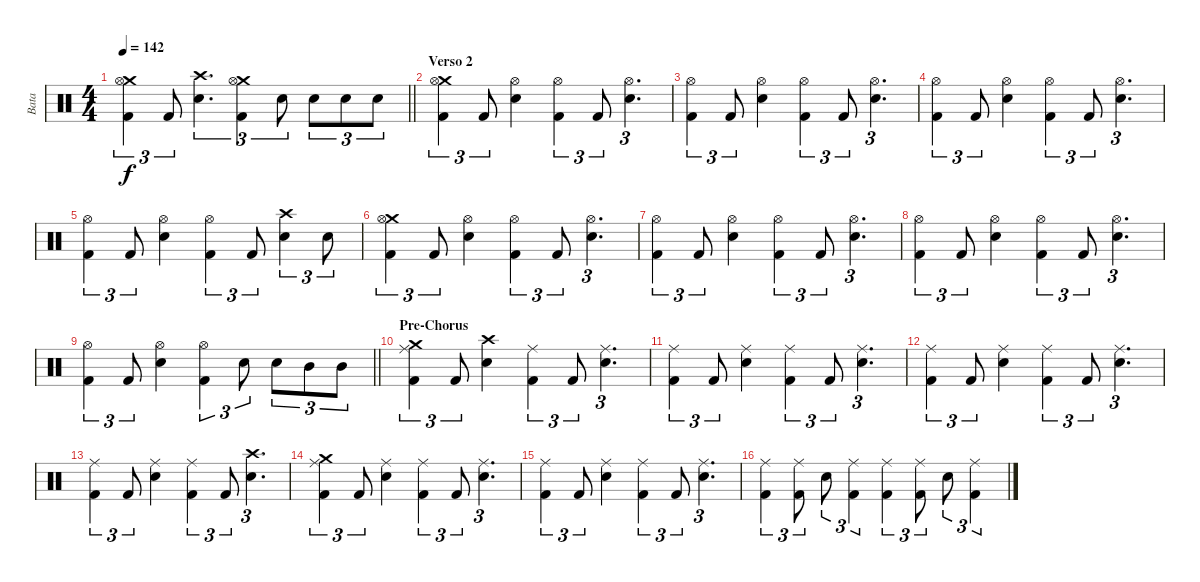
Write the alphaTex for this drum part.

\track ("Bata" "Bata") {instrument percussion}
\staff {score}
\articulation defaults
\ts (4 4)
\tempo 142
\clef neutral
\barLineRight lightlight
\ks c
("Crash medium (hit)" "Hi-Hat (open)" "Kick (hit) 2").4{tu (3 2) dy f} "Kick (hit) 2".8{tu (3 2)} ("Crash high (hit)" "Electric Snare (hit)").4{d tu (3 2)} ("Crash medium (hit)" "Hi-Hat (open)" "Kick (hit) 2").4{tu (3 2)} "Electric Snare (hit)".8{tu (3 2)} "Electric Snare (hit)".8{tu (3 2)} "Electric Snare (hit)".8{tu (3 2)} "Electric Snare (hit)".8{tu (3 2)} |
\section ("" "Verso 2")
("Crash medium (hit)" "Hi-Hat (open)" "Kick (hit) 2").4{tu (3 2)} "Kick (hit) 2".8{tu (3 2)} ("Hi-Hat (open)" "Electric Snare (hit)").4 ("Hi-Hat (open)" "Kick (hit) 2").4{tu (3 2)} "Kick (hit) 2".8{tu (3 2)} ("Hi-Hat (open)" "Electric Snare (hit)").4{d tu (3 2)} |
("Hi-Hat (open)" "Kick (hit) 2").4{tu (3 2)} "Kick (hit) 2".8{tu (3 2)} ("Hi-Hat (open)" "Electric Snare (hit)").4 ("Hi-Hat (open)" "Kick (hit) 2").4{tu (3 2)} "Kick (hit) 2".8{tu (3 2)} ("Hi-Hat (open)" "Electric Snare (hit)").4{d tu (3 2)} |
("Hi-Hat (open)" "Kick (hit) 2").4{tu (3 2)} "Kick (hit) 2".8{tu (3 2)} ("Hi-Hat (open)" "Electric Snare (hit)").4 ("Hi-Hat (open)" "Kick (hit) 2").4{tu (3 2)} "Kick (hit) 2".8{tu (3 2)} ("Hi-Hat (open)" "Electric Snare (hit)").4{d tu (3 2)} |
("Hi-Hat (open)" "Kick (hit) 2").4{tu (3 2)} "Kick (hit) 2".8{tu (3 2)} ("Hi-Hat (open)" "Electric Snare (hit)").4 ("Hi-Hat (open)" "Kick (hit) 2").4{tu (3 2)} "Kick (hit) 2".8{tu (3 2)} ("Crash high (hit)" "Electric Snare (hit)").4{tu (3 2)} "Electric Snare (hit)".8{tu (3 2)} |
("Crash medium (hit)" "Hi-Hat (open)" "Kick (hit) 2").4{tu (3 2)} "Kick (hit) 2".8{tu (3 2)} ("Hi-Hat (open)" "Electric Snare (hit)").4 ("Hi-Hat (open)" "Kick (hit) 2").4{tu (3 2)} "Kick (hit) 2".8{tu (3 2)} ("Hi-Hat (open)" "Electric Snare (hit)").4{d tu (3 2)} |
("Hi-Hat (open)" "Kick (hit) 2").4{tu (3 2)} "Kick (hit) 2".8{tu (3 2)} ("Hi-Hat (open)" "Electric Snare (hit)").4 ("Hi-Hat (open)" "Kick (hit) 2").4{tu (3 2)} "Kick (hit) 2".8{tu (3 2)} ("Hi-Hat (open)" "Electric Snare (hit)").4{d tu (3 2)} |
("Hi-Hat (open)" "Kick (hit) 2").4{tu (3 2)} "Kick (hit) 2".8{tu (3 2)} ("Hi-Hat (open)" "Electric Snare (hit)").4 ("Hi-Hat (open)" "Kick (hit) 2").4{tu (3 2)} "Kick (hit) 2".8{tu (3 2)} ("Hi-Hat (open)" "Electric Snare (hit)").4{d tu (3 2)} |
\barLineRight lightlight
("Hi-Hat (open)" "Kick (hit) 2").4{tu (3 2)} "Kick (hit) 2".8{tu (3 2)} ("Hi-Hat (open)" "Electric Snare (hit)").4 ("Hi-Hat (open)" "Kick (hit) 2").4{tu (3 2)} "Electric Snare (hit)".8{tu (3 2)} "Electric Snare (hit)".8{tu (3 2)} "Mid Tom (hit)".8{tu (3 2)} "Mid Tom (hit)".8{tu (3 2)} |
\section ("" "Pre-Chorus")
("Crash medium (hit)" "Ride (middle)" "Kick (hit) 2").4{tu (3 2)} "Kick (hit) 2".8{tu (3 2)} ("Crash high (hit)" "Electric Snare (hit)").4 ("Ride (middle)" "Kick (hit) 2").4{tu (3 2)} "Kick (hit) 2".8{tu (3 2)} ("Ride (middle)" "Electric Snare (hit)").4{d tu (3 2)} |
("Ride (middle)" "Kick (hit) 2").4{tu (3 2)} "Kick (hit) 2".8{tu (3 2)} ("Ride (middle)" "Electric Snare (hit)").4 ("Ride (middle)" "Kick (hit) 2").4{tu (3 2)} "Kick (hit) 2".8{tu (3 2)} ("Ride (middle)" "Electric Snare (hit)").4{d tu (3 2)} |
("Ride (middle)" "Kick (hit) 2").4{tu (3 2)} "Kick (hit) 2".8{tu (3 2)} ("Ride (middle)" "Electric Snare (hit)").4 ("Ride (middle)" "Kick (hit) 2").4{tu (3 2)} "Kick (hit) 2".8{tu (3 2)} ("Ride (middle)" "Electric Snare (hit)").4{d tu (3 2)} |
("Ride (middle)" "Kick (hit) 2").4{tu (3 2)} "Kick (hit) 2".8{tu (3 2)} ("Ride (middle)" "Electric Snare (hit)").4 ("Ride (middle)" "Kick (hit) 2").4{tu (3 2)} "Kick (hit) 2".8{tu (3 2)} ("Crash high (hit)" "Electric Snare (hit)").4{d tu (3 2)} |
("Crash medium (hit)" "Ride (middle)" "Kick (hit) 2").4{tu (3 2)} "Kick (hit) 2".8{tu (3 2)} ("Ride (middle)" "Electric Snare (hit)").4 ("Ride (middle)" "Kick (hit) 2").4{tu (3 2)} "Kick (hit) 2".8{tu (3 2)} ("Ride (middle)" "Electric Snare (hit)").4{d tu (3 2)} |
("Ride (middle)" "Kick (hit) 2").4{tu (3 2)} "Kick (hit) 2".8{tu (3 2)} ("Ride (middle)" "Electric Snare (hit)").4 ("Ride (middle)" "Kick (hit) 2").4{tu (3 2)} "Kick (hit) 2".8{tu (3 2)} ("Ride (middle)" "Electric Snare (hit)").4{d tu (3 2)} |
("Ride (middle)" "Kick (hit) 2").4{tu (3 2)} ("Ride (middle)" "Kick (hit) 2").8{tu (3 2)} "Electric Snare (hit)".8{tu (3 2)} ("Ride (middle)" "Kick (hit) 2").4{tu (3 2)} ("Ride (middle)" "Kick (hit) 2").4{tu (3 2)} ("Ride (middle)" "Kick (hit) 2").8{tu (3 2)} "Electric Snare (hit)".8{tu (3 2)} ("Ride (middle)" "Kick (hit) 2").4{tu (3 2)}
